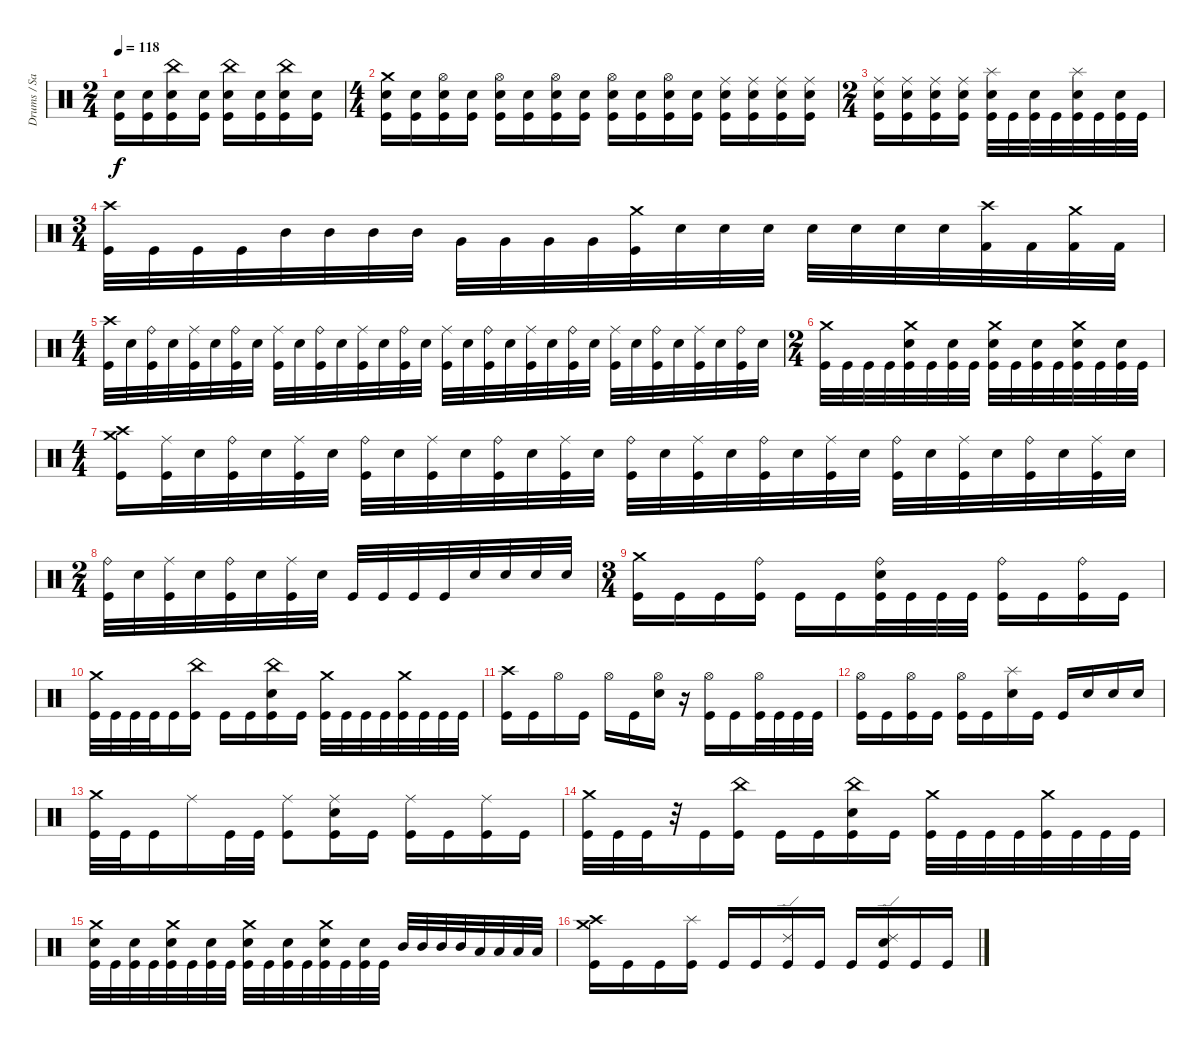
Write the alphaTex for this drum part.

\track ("Drums / Sasha" "Drums / Sa") {instrument percussion}
\staff {score}
\articulation defaults
\ts (2 4)
\tempo 118
\clef neutral
\ks c
("Kick (hit)" "Snare (hit) 2").16{dy f} ("Kick (hit)" "Snare (hit) 2").16 ("Kick (hit)" "Snare (hit) 2" "China (hit)").16 ("Kick (hit)" "Snare (hit) 2").16 ("Kick (hit)" "Snare (hit) 2" "China (hit)").16 ("Kick (hit)" "Snare (hit) 2").16 ("Kick (hit)" "Snare (hit) 2" "China (hit)").16 ("Kick (hit)" "Snare (hit) 2").16 |
\ts (4 4)
("Kick (hit)" "Snare (hit) 2" "Crash medium (hit)").16 ("Kick (hit)" "Snare (hit) 2").16 ("Kick (hit)" "Snare (hit) 2" "Hi-Hat (open)").16 ("Kick (hit)" "Snare (hit) 2").16 ("Kick (hit)" "Snare (hit) 2" "Hi-Hat (open)").16 ("Kick (hit)" "Snare (hit) 2").16 ("Kick (hit)" "Snare (hit) 2" "Hi-Hat (open)").16 ("Kick (hit)" "Snare (hit) 2").16 ("Kick (hit)" "Snare (hit) 2" "Hi-Hat (open)").16 ("Kick (hit)" "Snare (hit) 2").16 ("Kick (hit)" "Snare (hit) 2" "Hi-Hat (open)").16 ("Kick (hit)" "Snare (hit) 2").16 ("Kick (hit)" "Snare (hit) 2" "Ride (middle)").16 ("Kick (hit)" "Snare (hit) 2" "Ride (middle)").16 ("Kick (hit)" "Snare (hit) 2" "Ride (middle)").16 ("Kick (hit)" "Snare (hit) 2" "Ride (middle)").16 |
\ts (2 4)
("Kick (hit)" "Snare (hit) 2" "Ride (middle)").16 ("Kick (hit)" "Snare (hit) 2" "Ride (middle)").16 ("Kick (hit)" "Snare (hit) 2" "Ride (middle)").16 ("Kick (hit)" "Snare (hit) 2" "Ride (middle)").16 ("Kick (hit)" "Snare (hit) 2" "Splash (hit)").32 "Kick (hit)".32 ("Kick (hit)" "Snare (hit) 2").32 "Kick (hit)".32 ("Kick (hit)" "Snare (hit) 2" "Splash (hit)").32 "Kick (hit)".32 ("Kick (hit)" "Snare (hit) 2").32 "Kick (hit)".32 |
\ts (3 4)
("Kick (hit)" "Crash high (hit)").32 "Kick (hit)".32 "Kick (hit)".32 "Kick (hit)".32 "Mid Tom (hit)".32 "Mid Tom (hit)".32 "Mid Tom (hit)".32 "Mid Tom (hit)".32 "Very Low Tom (hit)".32 "Very Low Tom (hit)".32 "Very Low Tom (hit)".32 "Very Low Tom (hit)".32 ("Kick (hit)" "Crash medium (hit)").32 "Electric Snare (hit)".32 "Electric Snare (hit)".32 "Electric Snare (hit)".32 "Electric Snare (hit)".32 "Electric Snare (hit)".32 "Electric Snare (hit)".32 "Electric Snare (hit)".32 ("Crash high (hit)" "Kick (hit) 2").32 "Kick (hit) 2".32 ("Crash medium (hit)" "Kick (hit) 2").32 "Kick (hit) 2".32 |
\ts (4 4)
("Kick (hit)" "Crash high (hit)").32 "Snare (hit) 2".32 ("Kick (hit)" "Ride (bell)").32 "Snare (hit) 2".32 ("Kick (hit)" "Ride (middle)").32 "Snare (hit) 2".32 ("Kick (hit)" "Ride (bell)").32 "Snare (hit) 2".32 ("Kick (hit)" "Ride (middle)").32 "Snare (hit) 2".32 ("Kick (hit)" "Ride (bell)").32 "Snare (hit) 2".32 ("Kick (hit)" "Ride (middle)").32 "Snare (hit) 2".32 ("Kick (hit)" "Ride (bell)").32 "Snare (hit) 2".32 ("Kick (hit)" "Ride (middle)").32 "Snare (hit) 2".32 ("Kick (hit)" "Ride (bell)").32 "Snare (hit) 2".32 ("Kick (hit)" "Ride (middle)").32 "Snare (hit) 2".32 ("Kick (hit)" "Ride (bell)").32 "Snare (hit) 2".32 ("Kick (hit)" "Ride (middle)").32 "Snare (hit) 2".32 ("Kick (hit)" "Ride (bell)").32 "Snare (hit) 2".32 ("Kick (hit)" "Ride (middle)").32 "Snare (hit) 2".32 ("Kick (hit)" "Ride (bell)").32 "Snare (hit) 2".32 |
\ts (2 4)
("Kick (hit)" "Crash medium (hit)").32 "Kick (hit)".32 "Kick (hit)".32 "Kick (hit)".32 ("Kick (hit)" "Crash medium (hit)" "Snare (hit) 2").32 "Kick (hit)".32 ("Kick (hit)" "Snare (hit) 2").32 "Kick (hit)".32 ("Kick (hit)" "Crash medium (hit)" "Snare (hit) 2").32 "Kick (hit)".32 ("Kick (hit)" "Snare (hit) 2").32 "Kick (hit)".32 ("Kick (hit)" "Crash medium (hit)" "Snare (hit) 2").32 "Kick (hit)".32 ("Kick (hit)" "Snare (hit) 2").32 "Kick (hit)".32 |
\ts (4 4)
("Kick (hit)" "Crash medium (hit)" "Crash high (hit)").16 ("Kick (hit)" "Ride (middle)").32 "Snare (hit) 2".32 ("Kick (hit)" "Ride (bell)").32 "Snare (hit) 2".32 ("Kick (hit)" "Ride (middle)").32 "Snare (hit) 2".32 ("Kick (hit)" "Ride (bell)").32 "Snare (hit) 2".32 ("Kick (hit)" "Ride (middle)").32 "Snare (hit) 2".32 ("Kick (hit)" "Ride (bell)").32 "Snare (hit) 2".32 ("Kick (hit)" "Ride (middle)").32 "Snare (hit) 2".32 ("Kick (hit)" "Ride (bell)").32 "Snare (hit) 2".32 ("Kick (hit)" "Ride (middle)").32 "Snare (hit) 2".32 ("Kick (hit)" "Ride (bell)").32 "Snare (hit) 2".32 ("Kick (hit)" "Ride (middle)").32 "Snare (hit) 2".32 ("Kick (hit)" "Ride (bell)").32 "Snare (hit) 2".32 ("Kick (hit)" "Ride (middle)").32 "Snare (hit) 2".32 ("Kick (hit)" "Ride (bell)").32 "Snare (hit) 2".32 ("Kick (hit)" "Ride (middle)").32 "Snare (hit) 2".32 |
\ts (2 4)
("Kick (hit)" "Ride (bell)").32 "Snare (hit) 2".32 ("Kick (hit)" "Ride (middle)").32 "Snare (hit) 2".32 ("Kick (hit)" "Ride (bell)").32 "Snare (hit) 2".32 ("Kick (hit)" "Ride (middle)").32 "Snare (hit) 2".32 "Kick (hit)".32 "Kick (hit)".32 "Kick (hit)".32 "Kick (hit)".32 "Snare (hit) 2".32 "Snare (hit) 2".32 "Snare (hit) 2".32 "Snare (hit) 2".32 |
\ts (3 4)
("Kick (hit)" "Crash medium (hit)").16 "Kick (hit)".16 "Kick (hit)".16 ("Kick (hit)" "Ride (bell)").16 "Kick (hit)".16 "Kick (hit)".16 ("Kick (hit)" "Ride (bell)" "Snare (hit) 2").32 "Kick (hit)".32 "Kick (hit)".32 "Kick (hit)".32 ("Kick (hit)" "Ride (bell)").16 "Kick (hit)".16 ("Kick (hit)" "Ride (bell)").16 "Kick (hit)".16 |
("Kick (hit)" "Crash medium (hit)").32 "Kick (hit)".32 "Kick (hit)".32 "Kick (hit)".32 "Kick (hit)".16 ("Kick (hit)" "China (hit)").16 "Kick (hit)".16 "Kick (hit)".16 ("Kick (hit)" "China (hit)" "Snare (hit) 2").16 "Kick (hit)".16 ("Kick (hit)" "Crash medium (hit)").32 "Kick (hit)".32 "Kick (hit)".32 "Kick (hit)".32 ("Kick (hit)" "Crash medium (hit)").32 "Kick (hit)".32 "Kick (hit)".32 "Kick (hit)".32 |
("Kick (hit)" "Crash high (hit)").16 "Kick (hit)".16 "Hi-Hat (open)".16 "Kick (hit)".16 "Hi-Hat (open)".16 "Kick (hit)".16 ("Snare (hit) 2" "Hi-Hat (open)").16 r.16 ("Kick (hit)" "Hi-Hat (open)").16 "Kick (hit)".16 ("Kick (hit)" "Hi-Hat (open)").32 "Kick (hit)".32 "Kick (hit)".32 "Kick (hit)".32 |
("Kick (hit)" "Hi-Hat (open)").16 "Kick (hit)".16 ("Kick (hit)" "Hi-Hat (open)").16 "Kick (hit)".16 ("Kick (hit)" "Hi-Hat (open)").16 "Kick (hit)".16 ("Snare (hit) 2" "Splash (hit)").16 "Kick (hit)".16 "Kick (hit)".16 "Snare (hit) 2".16 "Snare (hit) 2".16 "Snare (hit) 2".16 |
("Kick (hit)" "Crash medium (hit)").32 "Kick (hit)".32 "Kick (hit)".16 "Ride (middle)".16 "Kick (hit)".32 "Kick (hit)".32 ("Kick (hit)" "Ride (middle)").8 ("Ride (middle)" "Kick (hit)" "Snare (hit) 2").16 "Kick (hit)".16 ("Ride (middle)" "Kick (hit)").16 "Kick (hit)".16 ("Ride (middle)" "Kick (hit)").16 "Kick (hit)".16 |
("Kick (hit)" "Crash medium (hit)").32 "Kick (hit)".32 "Kick (hit)".32 r.32 "Kick (hit)".16 ("Kick (hit)" "China (hit)").16 "Kick (hit)".16 "Kick (hit)".16 ("Kick (hit)" "China (hit)" "Snare (hit) 2").16 "Kick (hit)".16 ("Kick (hit)" "Crash medium (hit)").32 "Kick (hit)".32 "Kick (hit)".32 "Kick (hit)".32 ("Kick (hit)" "Crash medium (hit)").32 "Kick (hit)".32 "Kick (hit)".32 "Kick (hit)".32 |
("Kick (hit)" "Crash medium (hit)" "Snare (hit) 2").32 "Kick (hit)".32 ("Kick (hit)" "Snare (hit) 2").32 "Kick (hit)".32 ("Kick (hit)" "Crash medium (hit)" "Snare (hit) 2").32 "Kick (hit)".32 ("Kick (hit)" "Snare (hit) 2").32 "Kick (hit)".32 ("Kick (hit)" "Crash medium (hit)" "Snare (hit) 2").32 "Kick (hit)".32 ("Kick (hit)" "Snare (hit) 2").32 "Kick (hit)".32 ("Kick (hit)" "Crash medium (hit)" "Snare (hit) 2").32 "Kick (hit)".32 ("Kick (hit)" "Snare (hit) 2").32 "Kick (hit)".32 "Mid Tom (hit)".32 "Mid Tom (hit)".32 "Mid Tom (hit)".32 "Mid Tom (hit)".32 "Low Tom (hit)".32 "Low Tom (hit)".32 "Low Tom (hit)".32 "Low Tom (hit)".32 |
("Kick (hit)" "Crash medium (hit)" "Crash high (hit)").16 "Kick (hit)".16 "Kick (hit)".16 ("Kick (hit)" "Splash (hit)").16 "Kick (hit)".16 "Kick (hit)".16 ("Kick (hit)" "Ride (edge) 2").16 "Kick (hit)".16 "Kick (hit)".16 ("Kick (hit)" "Ride (edge) 2" "Snare (hit) 2").16 "Kick (hit)".16 "Kick (hit)".16
